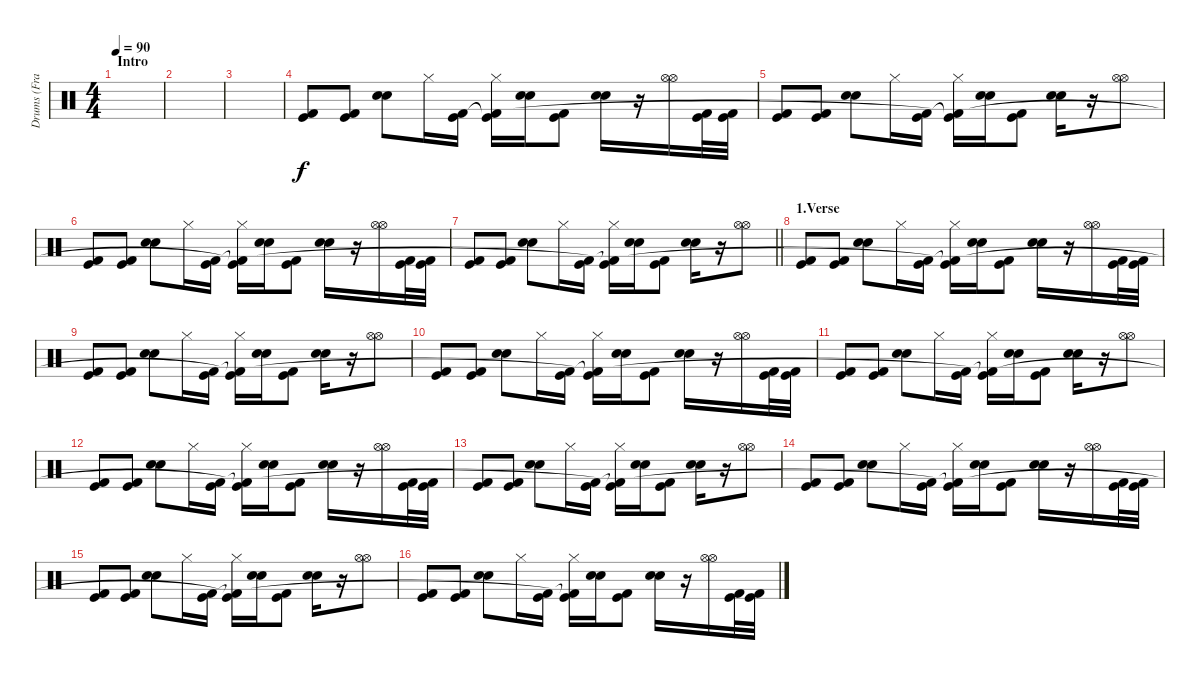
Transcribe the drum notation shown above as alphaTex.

\track ("Drums (Frank Ferrer)" "Drums (Fra") {instrument percussion}
\staff {score}
\articulation defaults
\ts (4 4)
\section ("" "Intro")
\tempo 90
\clef neutral
\ks c
|
|
|
("Kick (hit)" "Kick (hit) 2").8 ("Kick (hit)" "Kick (hit) 2").8 ("Snare (hit) 2" "Snare (hit) 2").8 "Hi-Hat (closed)".16 ("Kick (hit)" "Kick (hit) 2").16 ("Hi-Hat (closed)" "Kick (hit)"{t} "Kick (hit) 2").16 ("Snare (hit) 2" "Snare (hit) 2").16 ("Kick (hit)" "Kick (hit) 2").8 ("Snare (hit) 2" "Snare (hit) 2").16 r.16 ("Hi-Hat (open)" "Hi-Hat (open)").16 ("Kick (hit)" "Kick (hit) 2").32 ("Kick (hit)" "Kick (hit) 2").32 |
("Kick (hit)" "Kick (hit) 2").8 ("Kick (hit)" "Kick (hit) 2").8 ("Snare (hit) 2" "Snare (hit) 2").8 "Hi-Hat (closed)".16 ("Kick (hit)" "Kick (hit) 2").16 ("Hi-Hat (closed)" "Kick (hit)"{t} "Kick (hit) 2"{t}).16 ("Snare (hit) 2" "Snare (hit) 2").16 ("Kick (hit)" "Kick (hit) 2").8 ("Snare (hit) 2" "Snare (hit) 2").16 r.16 ("Hi-Hat (open)" "Hi-Hat (open)").8 |
("Kick (hit)" "Kick (hit) 2").8 ("Kick (hit)" "Kick (hit) 2").8 ("Snare (hit) 2" "Snare (hit) 2").8 "Hi-Hat (closed)".16 ("Kick (hit)" "Kick (hit) 2").16 ("Hi-Hat (closed)" "Kick (hit)"{t} "Kick (hit) 2"{t}).16 ("Snare (hit) 2" "Snare (hit) 2").16 ("Kick (hit)" "Kick (hit) 2").8 ("Snare (hit) 2" "Snare (hit) 2").16 r.16 ("Hi-Hat (open)" "Hi-Hat (open)").16 ("Kick (hit)" "Kick (hit) 2").32 ("Kick (hit)" "Kick (hit) 2").32 |
\barLineRight lightlight
("Kick (hit)" "Kick (hit) 2").8 ("Kick (hit)" "Kick (hit) 2").8 ("Snare (hit) 2" "Snare (hit) 2").8 "Hi-Hat (closed)".16 ("Kick (hit)" "Kick (hit) 2").16 ("Hi-Hat (closed)" "Kick (hit)"{t} "Kick (hit) 2"{t}).16 ("Snare (hit) 2" "Snare (hit) 2").16 ("Kick (hit)" "Kick (hit) 2").8 ("Snare (hit) 2" "Snare (hit) 2").16 r.16 ("Hi-Hat (open)" "Hi-Hat (open)").8 |
\section ("" "1.Verse")
("Kick (hit)" "Kick (hit) 2").8 ("Kick (hit)" "Kick (hit) 2").8 ("Snare (hit) 2" "Snare (hit) 2").8 "Hi-Hat (closed)".16 ("Kick (hit)" "Kick (hit) 2").16 ("Hi-Hat (closed)" "Kick (hit)"{t} "Kick (hit) 2"{t}).16 ("Snare (hit) 2" "Snare (hit) 2").16 ("Kick (hit)" "Kick (hit) 2").8 ("Snare (hit) 2" "Snare (hit) 2").16 r.16 ("Hi-Hat (open)" "Hi-Hat (open)").16 ("Kick (hit)" "Kick (hit) 2").32 ("Kick (hit)" "Kick (hit) 2").32 |
("Kick (hit)" "Kick (hit) 2").8 ("Kick (hit)" "Kick (hit) 2").8 ("Snare (hit) 2" "Snare (hit) 2").8 "Hi-Hat (closed)".16 ("Kick (hit)" "Kick (hit) 2").16 ("Hi-Hat (closed)" "Kick (hit)"{t} "Kick (hit) 2"{t}).16 ("Snare (hit) 2" "Snare (hit) 2").16 ("Kick (hit)" "Kick (hit) 2").8 ("Snare (hit) 2" "Snare (hit) 2").16 r.16 ("Hi-Hat (open)" "Hi-Hat (open)").8 |
("Kick (hit)" "Kick (hit) 2").8 ("Kick (hit)" "Kick (hit) 2").8 ("Snare (hit) 2" "Snare (hit) 2").8 "Hi-Hat (closed)".16 ("Kick (hit)" "Kick (hit) 2").16 ("Hi-Hat (closed)" "Kick (hit)"{t} "Kick (hit) 2"{t}).16 ("Snare (hit) 2" "Snare (hit) 2").16 ("Kick (hit)" "Kick (hit) 2").8 ("Snare (hit) 2" "Snare (hit) 2").16 r.16 ("Hi-Hat (open)" "Hi-Hat (open)").16 ("Kick (hit)" "Kick (hit) 2").32 ("Kick (hit)" "Kick (hit) 2").32 |
("Kick (hit)" "Kick (hit) 2").8 ("Kick (hit)" "Kick (hit) 2").8 ("Snare (hit) 2" "Snare (hit) 2").8 "Hi-Hat (closed)".16 ("Kick (hit)" "Kick (hit) 2").16 ("Hi-Hat (closed)" "Kick (hit)"{t} "Kick (hit) 2"{t}).16 ("Snare (hit) 2" "Snare (hit) 2").16 ("Kick (hit)" "Kick (hit) 2").8 ("Snare (hit) 2" "Snare (hit) 2").16 r.16 ("Hi-Hat (open)" "Hi-Hat (open)").8 |
("Kick (hit)" "Kick (hit) 2").8 ("Kick (hit)" "Kick (hit) 2").8 ("Snare (hit) 2" "Snare (hit) 2").8 "Hi-Hat (closed)".16 ("Kick (hit)" "Kick (hit) 2").16 ("Hi-Hat (closed)" "Kick (hit)"{t} "Kick (hit) 2"{t}).16 ("Snare (hit) 2" "Snare (hit) 2").16 ("Kick (hit)" "Kick (hit) 2").8 ("Snare (hit) 2" "Snare (hit) 2").16 r.16 ("Hi-Hat (open)" "Hi-Hat (open)").16 ("Kick (hit)" "Kick (hit) 2").32 ("Kick (hit)" "Kick (hit) 2").32 |
("Kick (hit)" "Kick (hit) 2").8 ("Kick (hit)" "Kick (hit) 2").8 ("Snare (hit) 2" "Snare (hit) 2").8 "Hi-Hat (closed)".16 ("Kick (hit)" "Kick (hit) 2").16 ("Hi-Hat (closed)" "Kick (hit)"{t} "Kick (hit) 2"{t}).16 ("Snare (hit) 2" "Snare (hit) 2").16 ("Kick (hit)" "Kick (hit) 2").8 ("Snare (hit) 2" "Snare (hit) 2").16 r.16 ("Hi-Hat (open)" "Hi-Hat (open)").8 |
("Kick (hit)" "Kick (hit) 2").8 ("Kick (hit)" "Kick (hit) 2").8 ("Snare (hit) 2" "Snare (hit) 2").8 "Hi-Hat (closed)".16 ("Kick (hit)" "Kick (hit) 2").16 ("Hi-Hat (closed)" "Kick (hit)"{t} "Kick (hit) 2"{t}).16 ("Snare (hit) 2" "Snare (hit) 2").16 ("Kick (hit)" "Kick (hit) 2").8 ("Snare (hit) 2" "Snare (hit) 2").16 r.16 ("Hi-Hat (open)" "Hi-Hat (open)").16 ("Kick (hit)" "Kick (hit) 2").32 ("Kick (hit)" "Kick (hit) 2").32 |
("Kick (hit)" "Kick (hit) 2").8 ("Kick (hit)" "Kick (hit) 2").8 ("Snare (hit) 2" "Snare (hit) 2").8 "Hi-Hat (closed)".16 ("Kick (hit)" "Kick (hit) 2").16 ("Hi-Hat (closed)" "Kick (hit)"{t} "Kick (hit) 2"{t}).16 ("Snare (hit) 2" "Snare (hit) 2").16 ("Kick (hit)" "Kick (hit) 2").8 ("Snare (hit) 2" "Snare (hit) 2").16 r.16 ("Hi-Hat (open)" "Hi-Hat (open)").8 |
("Kick (hit)" "Kick (hit) 2").8 ("Kick (hit)" "Kick (hit) 2").8 ("Snare (hit) 2" "Snare (hit) 2").8 "Hi-Hat (closed)".16 ("Kick (hit)" "Kick (hit) 2").16 ("Hi-Hat (closed)" "Kick (hit)"{t} "Kick (hit) 2"{t}).16 ("Snare (hit) 2" "Snare (hit) 2").16 ("Kick (hit)" "Kick (hit) 2").8 ("Snare (hit) 2" "Snare (hit) 2").16 r.16 ("Hi-Hat (open)" "Hi-Hat (open)").16 ("Kick (hit)" "Kick (hit) 2").32 ("Kick (hit)" "Kick (hit) 2").32
